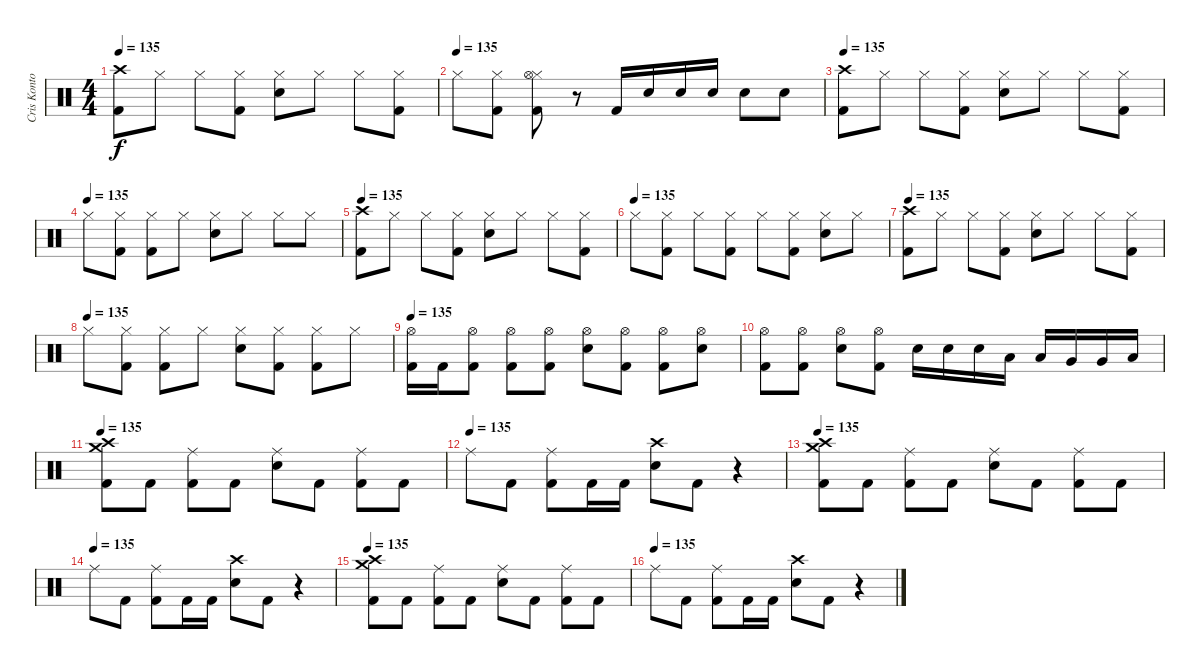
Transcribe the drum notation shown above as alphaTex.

\track ("Cris Kontos" "Cris Konto") {instrument percussion}
\staff {score}
\articulation defaults
\ts (4 4)
\tempo 135
\clef neutral
\ks c
("Crash high (hit)" "Kick (hit) 2").8{dy f} "Hi-Hat (closed)".8 "Hi-Hat (closed)".8 ("Hi-Hat (closed)" "Kick (hit) 2").8 ("Hi-Hat (closed)" "Electric Snare (hit)").8 "Hi-Hat (closed)".8 "Hi-Hat (closed)".8 ("Hi-Hat (closed)" "Kick (hit) 2").8 |
\tempo (135)
"Hi-Hat (closed)".8 ("Hi-Hat (closed)" "Kick (hit) 2").8 ("Hi-Hat (closed)" "Hi-Hat (open)" "Kick (hit) 2").8 r.8 "Kick (hit) 2".16 "Electric Snare (hit)".16 "Electric Snare (hit)".16 "Electric Snare (hit)".16 "Electric Snare (hit)".8 "Electric Snare (hit)".8 |
\tempo 135
("Crash high (hit)" "Kick (hit) 2").8 "Hi-Hat (closed)".8 "Hi-Hat (closed)".8 ("Hi-Hat (closed)" "Kick (hit) 2").8 ("Hi-Hat (closed)" "Electric Snare (hit)").8 "Hi-Hat (closed)".8 "Hi-Hat (closed)".8 ("Hi-Hat (closed)" "Kick (hit) 2").8 |
\tempo (135)
"Hi-Hat (closed)".8 ("Hi-Hat (closed)" "Kick (hit) 2").8 ("Hi-Hat (closed)" "Kick (hit) 2").8 "Hi-Hat (closed)".8 ("Hi-Hat (closed)" "Electric Snare (hit)").8 "Hi-Hat (closed)".8 "Hi-Hat (closed)".8 "Hi-Hat (closed)".8 |
\tempo 135
("Crash high (hit)" "Kick (hit) 2").8 "Hi-Hat (closed)".8 "Hi-Hat (closed)".8 ("Hi-Hat (closed)" "Kick (hit) 2").8 ("Hi-Hat (closed)" "Electric Snare (hit)").8 "Hi-Hat (closed)".8 "Hi-Hat (closed)".8 ("Hi-Hat (closed)" "Kick (hit) 2").8 |
\tempo (135)
"Hi-Hat (closed)".8 ("Hi-Hat (closed)" "Kick (hit) 2").8 "Hi-Hat (closed)".8 ("Hi-Hat (closed)" "Kick (hit) 2").8 "Hi-Hat (closed)".8 ("Hi-Hat (closed)" "Kick (hit) 2").8 ("Hi-Hat (closed)" "Electric Snare (hit)").8 "Hi-Hat (closed)".8 |
\tempo 135
("Crash high (hit)" "Kick (hit) 2").8 "Hi-Hat (closed)".8 "Hi-Hat (closed)".8 ("Hi-Hat (closed)" "Kick (hit) 2").8 ("Hi-Hat (closed)" "Electric Snare (hit)").8 "Hi-Hat (closed)".8 "Hi-Hat (closed)".8 ("Hi-Hat (closed)" "Kick (hit) 2").8 |
\tempo (135)
"Hi-Hat (closed)".8 ("Hi-Hat (closed)" "Kick (hit) 2").8 ("Hi-Hat (closed)" "Kick (hit) 2").8 "Hi-Hat (closed)".8 ("Hi-Hat (closed)" "Electric Snare (hit)").8 ("Hi-Hat (closed)" "Kick (hit) 2").8 ("Hi-Hat (closed)" "Kick (hit) 2").8 "Hi-Hat (closed)".8 |
\tempo 135
("Hi-Hat (open)" "Kick (hit) 2").16 "Kick (hit) 2".16 ("Hi-Hat (open)" "Kick (hit) 2").8 ("Hi-Hat (open)" "Kick (hit) 2").8 ("Hi-Hat (open)" "Kick (hit) 2").8 ("Hi-Hat (open)" "Electric Snare (hit)").8 ("Hi-Hat (open)" "Kick (hit) 2").8 ("Hi-Hat (open)" "Kick (hit) 2").8 ("Hi-Hat (open)" "Electric Snare (hit)").8 |
("Hi-Hat (open)" "Kick (hit) 2").8 ("Hi-Hat (open)" "Kick (hit) 2").8 ("Hi-Hat (open)" "Electric Snare (hit)").8 ("Hi-Hat (open)" "Kick (hit) 2").8 "Electric Snare (hit)".16 "Electric Snare (hit)".16 "Electric Snare (hit)".16 "Low Tom (hit)".16 "Low Tom (hit)".16 "Very Low Tom (hit)".16 "Very Low Tom (hit)".16 "Low Floor Tom (hit)".16 |
\tempo 135
("Crash high (hit)" "Crash medium (hit)" "Kick (hit) 2").8 "Kick (hit) 2".8 ("Ride (middle)" "Kick (hit) 2").8 "Kick (hit) 2".8 ("Ride (middle)" "Electric Snare (hit)").8 "Kick (hit) 2".8 ("Ride (middle)" "Kick (hit) 2").8 "Kick (hit) 2".8 |
\tempo (135)
"Ride (middle)".8 "Kick (hit) 2".8 ("Ride (middle)" "Kick (hit) 2").8 "Kick (hit) 2".16 "Kick (hit) 2".16 ("Crash high (hit)" "Electric Snare (hit)").8 "Kick (hit) 2".8 r.4 |
\tempo 135
("Crash high (hit)" "Crash medium (hit)" "Kick (hit) 2").8 "Kick (hit) 2".8 ("Ride (middle)" "Kick (hit) 2").8 "Kick (hit) 2".8 ("Ride (middle)" "Electric Snare (hit)").8 "Kick (hit) 2".8 ("Ride (middle)" "Kick (hit) 2").8 "Kick (hit) 2".8 |
\tempo (135)
"Ride (middle)".8 "Kick (hit) 2".8 ("Ride (middle)" "Kick (hit) 2").8 "Kick (hit) 2".16 "Kick (hit) 2".16 ("Crash high (hit)" "Electric Snare (hit)").8 "Kick (hit) 2".8 r.4 |
\tempo 135
("Crash high (hit)" "Crash medium (hit)" "Kick (hit) 2").8 "Kick (hit) 2".8 ("Ride (middle)" "Kick (hit) 2").8 "Kick (hit) 2".8 ("Ride (middle)" "Electric Snare (hit)").8 "Kick (hit) 2".8 ("Ride (middle)" "Kick (hit) 2").8 "Kick (hit) 2".8 |
\tempo (135)
"Ride (middle)".8 "Kick (hit) 2".8 ("Ride (middle)" "Kick (hit) 2").8 "Kick (hit) 2".16 "Kick (hit) 2".16 ("Crash high (hit)" "Electric Snare (hit)").8 "Kick (hit) 2".8 r.4
